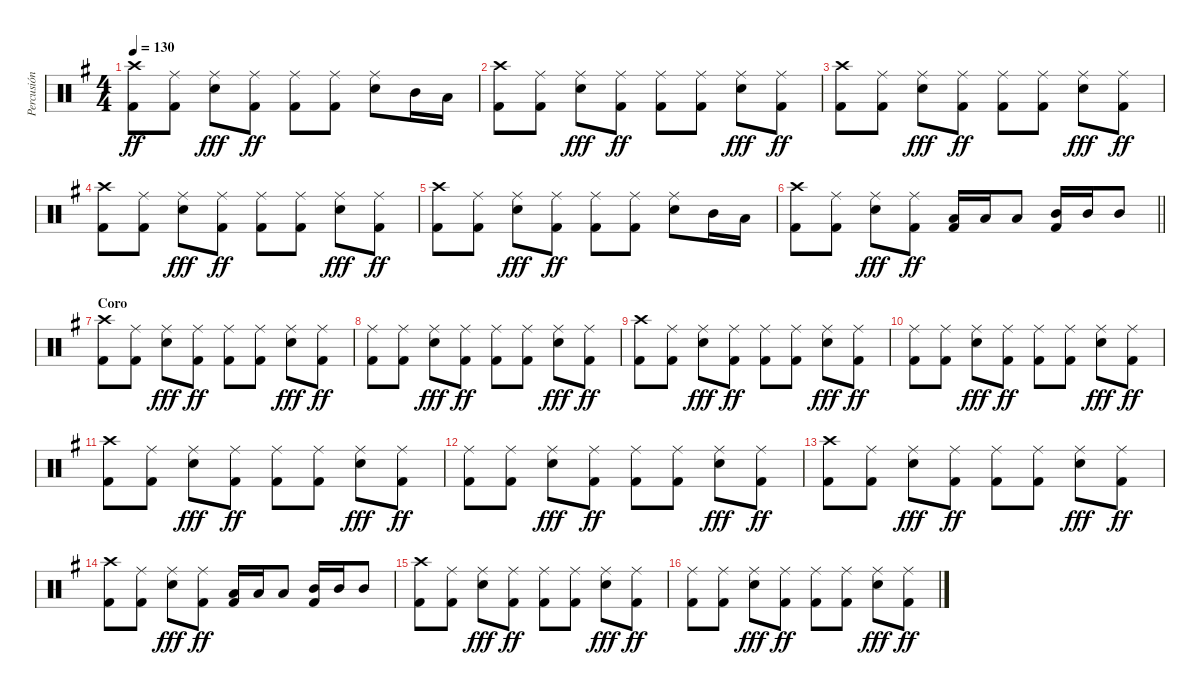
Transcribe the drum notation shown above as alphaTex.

\track ("Percusión" "Percusión") {instrument percussion}
\staff {score}
\articulation defaults
\ts (4 4)
\tempo 130
\clef neutral
\ks g
("Crash high (hit)" "Kick (hit) 2").8{dy ff} ("Ride (middle)" "Kick (hit) 2").8 ("Ride (middle)" "Snare (hit) 2").8{dy fff} ("Ride (middle)" "Kick (hit) 2").8{dy ff} ("Ride (middle)" "Kick (hit) 2").8 ("Ride (middle)" "Kick (hit) 2").8 ("Ride (middle)" "Snare (hit) 2").8 "Mid Tom (hit)".16 "Low Tom (hit)".16 |
("Crash high (hit)" "Kick (hit) 2").8 ("Ride (middle)" "Kick (hit) 2").8 ("Ride (middle)" "Snare (hit) 2").8{dy fff} ("Ride (middle)" "Kick (hit) 2").8{dy ff} ("Ride (middle)" "Kick (hit) 2").8 ("Ride (middle)" "Kick (hit) 2").8 ("Ride (middle)" "Snare (hit) 2").8{dy fff} ("Ride (middle)" "Kick (hit) 2").8{dy ff} |
("Crash high (hit)" "Kick (hit) 2").8 ("Ride (middle)" "Kick (hit) 2").8 ("Ride (middle)" "Snare (hit) 2").8{dy fff} ("Ride (middle)" "Kick (hit) 2").8{dy ff} ("Ride (middle)" "Kick (hit) 2").8 ("Ride (middle)" "Kick (hit) 2").8 ("Ride (middle)" "Snare (hit) 2").8{dy fff} ("Ride (middle)" "Kick (hit) 2").8{dy ff} |
("Crash high (hit)" "Kick (hit) 2").8 ("Ride (middle)" "Kick (hit) 2").8 ("Ride (middle)" "Snare (hit) 2").8{dy fff} ("Ride (middle)" "Kick (hit) 2").8{dy ff} ("Ride (middle)" "Kick (hit) 2").8 ("Ride (middle)" "Kick (hit) 2").8 ("Ride (middle)" "Snare (hit) 2").8{dy fff} ("Ride (middle)" "Kick (hit) 2").8{dy ff} |
("Crash high (hit)" "Kick (hit) 2").8 ("Ride (middle)" "Kick (hit) 2").8 ("Ride (middle)" "Snare (hit) 2").8{dy fff} ("Ride (middle)" "Kick (hit) 2").8{dy ff} ("Ride (middle)" "Kick (hit) 2").8 ("Ride (middle)" "Kick (hit) 2").8 ("Ride (middle)" "Snare (hit) 2").8 "Mid Tom (hit)".16 "Low Tom (hit)".16 |
\barLineRight lightlight
("Crash high (hit)" "Kick (hit) 2").8 ("Ride (middle)" "Kick (hit) 2").8 ("Ride (middle)" "Snare (hit) 2").8{dy fff} ("Ride (middle)" "Kick (hit) 2").8{dy ff} ("Low Tom (hit)" "Kick (hit) 2").16 "Low Tom (hit)".16 "Low Tom (hit)".8 ("Mid Tom (hit)" "Kick (hit) 2").16 "Mid Tom (hit)".16 "Mid Tom (hit)".8 |
\section ("" "Coro")
("Crash high (hit)" "Kick (hit) 2").8 ("Ride (middle)" "Kick (hit) 2").8 ("Ride (middle)" "Snare (hit) 2").8{dy fff} ("Ride (middle)" "Kick (hit) 2").8{dy ff} ("Ride (middle)" "Kick (hit) 2").8 ("Ride (middle)" "Kick (hit) 2").8 ("Ride (middle)" "Snare (hit) 2").8{dy fff} ("Ride (middle)" "Kick (hit) 2").8{dy ff} |
("Ride (middle)" "Kick (hit) 2").8 ("Ride (middle)" "Kick (hit) 2").8 ("Ride (middle)" "Snare (hit) 2").8{dy fff} ("Ride (middle)" "Kick (hit) 2").8{dy ff} ("Ride (middle)" "Kick (hit) 2").8 ("Ride (middle)" "Kick (hit) 2").8 ("Ride (middle)" "Snare (hit) 2").8{dy fff} ("Ride (middle)" "Kick (hit) 2").8{dy ff} |
("Crash high (hit)" "Kick (hit) 2").8 ("Ride (middle)" "Kick (hit) 2").8 ("Ride (middle)" "Snare (hit) 2").8{dy fff} ("Ride (middle)" "Kick (hit) 2").8{dy ff} ("Ride (middle)" "Kick (hit) 2").8 ("Ride (middle)" "Kick (hit) 2").8 ("Ride (middle)" "Snare (hit) 2").8{dy fff} ("Ride (middle)" "Kick (hit) 2").8{dy ff} |
("Ride (middle)" "Kick (hit) 2").8 ("Ride (middle)" "Kick (hit) 2").8 ("Ride (middle)" "Snare (hit) 2").8{dy fff} ("Ride (middle)" "Kick (hit) 2").8{dy ff} ("Ride (middle)" "Kick (hit) 2").8 ("Ride (middle)" "Kick (hit) 2").8 ("Ride (middle)" "Snare (hit) 2").8{dy fff} ("Ride (middle)" "Kick (hit) 2").8{dy ff} |
("Crash high (hit)" "Kick (hit) 2").8 ("Ride (middle)" "Kick (hit) 2").8 ("Ride (middle)" "Snare (hit) 2").8{dy fff} ("Ride (middle)" "Kick (hit) 2").8{dy ff} ("Ride (middle)" "Kick (hit) 2").8 ("Ride (middle)" "Kick (hit) 2").8 ("Ride (middle)" "Snare (hit) 2").8{dy fff} ("Ride (middle)" "Kick (hit) 2").8{dy ff} |
("Ride (middle)" "Kick (hit) 2").8 ("Ride (middle)" "Kick (hit) 2").8 ("Ride (middle)" "Snare (hit) 2").8{dy fff} ("Ride (middle)" "Kick (hit) 2").8{dy ff} ("Ride (middle)" "Kick (hit) 2").8 ("Ride (middle)" "Kick (hit) 2").8 ("Ride (middle)" "Snare (hit) 2").8{dy fff} ("Ride (middle)" "Kick (hit) 2").8{dy ff} |
("Crash high (hit)" "Kick (hit) 2").8 ("Ride (middle)" "Kick (hit) 2").8 ("Ride (middle)" "Snare (hit) 2").8{dy fff} ("Ride (middle)" "Kick (hit) 2").8{dy ff} ("Ride (middle)" "Kick (hit) 2").8 ("Ride (middle)" "Kick (hit) 2").8 ("Ride (middle)" "Snare (hit) 2").8{dy fff} ("Ride (middle)" "Kick (hit) 2").8{dy ff} |
("Crash high (hit)" "Kick (hit) 2").8 ("Ride (middle)" "Kick (hit) 2").8 ("Ride (middle)" "Snare (hit) 2").8{dy fff} ("Ride (middle)" "Kick (hit) 2").8{dy ff} ("Low Tom (hit)" "Kick (hit) 2").16 "Low Tom (hit)".16 "Low Tom (hit)".8 ("Mid Tom (hit)" "Kick (hit) 2").16 "Mid Tom (hit)".16 "Mid Tom (hit)".8 |
("Crash high (hit)" "Kick (hit) 2").8 ("Ride (middle)" "Kick (hit) 2").8 ("Ride (middle)" "Snare (hit) 2").8{dy fff} ("Ride (middle)" "Kick (hit) 2").8{dy ff} ("Ride (middle)" "Kick (hit) 2").8 ("Ride (middle)" "Kick (hit) 2").8 ("Ride (middle)" "Snare (hit) 2").8{dy fff} ("Ride (middle)" "Kick (hit) 2").8{dy ff} |
("Ride (middle)" "Kick (hit) 2").8 ("Ride (middle)" "Kick (hit) 2").8 ("Ride (middle)" "Snare (hit) 2").8{dy fff} ("Ride (middle)" "Kick (hit) 2").8{dy ff} ("Ride (middle)" "Kick (hit) 2").8 ("Ride (middle)" "Kick (hit) 2").8 ("Ride (middle)" "Snare (hit) 2").8{dy fff} ("Ride (middle)" "Kick (hit) 2").8{dy ff}
